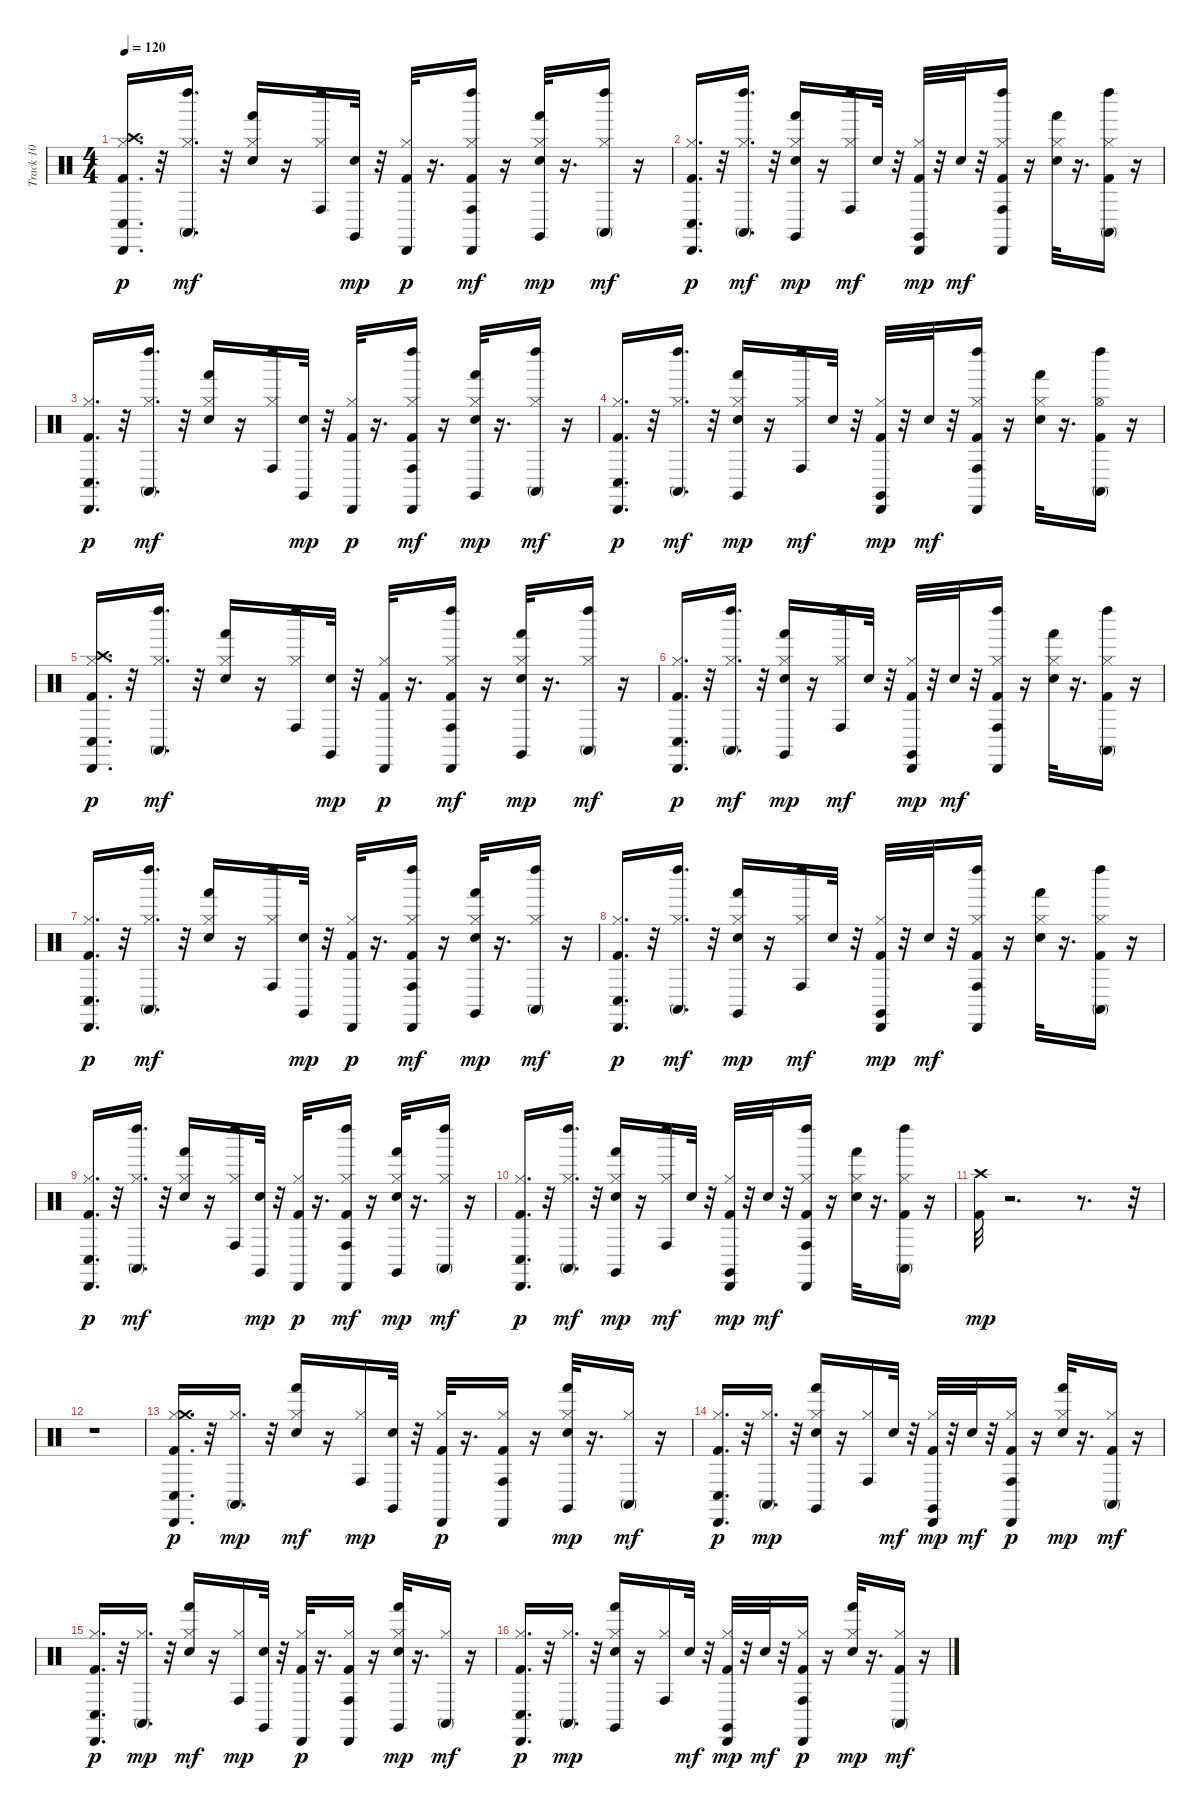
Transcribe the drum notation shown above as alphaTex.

\track ("Track 10" "Track 10") {instrument percussion}
\staff {score}
\articulation defaults
\ts (4 4)
\tempo 120
\clef neutral
\ks c
("Kick (hit) 2" "Hi-Hat (closed)" "Crash high (hit)" "Conga low (hit)" "Cabasa (hit)").16{d dy p} r.32 ("Hi-Hat (closed)" "Conga high (mute)" "Left Maraca (hit)").16{d dy mf} r.32 ("Electric Snare (hit)" "Hi-Hat (closed)" "Hand (hit)").16 r.16 ("Hi-Hat (closed)" "Conga high (hit)" "Left Maraca (hit)").16 ("Electric Snare (hit)" "Claves (hit)").32{dy mp} r.32 ("Kick (hit) 2" "Hi-Hat (closed)" "Cabasa (hit)").32{dy p} r.16{d} ("Kick (hit) 2" "Hi-Hat (closed)" "Conga high (hit)" "Cabasa (hit)" "Left Maraca (hit)").16{dy mf} r.16 ("Electric Snare (hit)" "Hi-Hat (closed)" "Hand (hit)" "Claves (hit)").32{dy mp} r.16{d} ("Hi-Hat (closed)" "Conga high (mute)" "Left Maraca (hit)").16{dy mf} r.16 |
("Kick (hit) 2" "Hi-Hat (closed)" "Conga low (hit)" "Cabasa (hit)").16{d dy p} r.32 ("Hi-Hat (closed)" "Conga high (mute)" "Left Maraca (hit)").16{d dy mf} r.32 ("Electric Snare (hit)" "Hi-Hat (closed)" "Hand (hit)" "Claves (hit)").16{dy mp} r.16 ("Hi-Hat (closed)" "Conga high (hit)" "Left Maraca (hit)").16{dy mf} "Electric Snare (hit)".32 r.32 ("Kick (hit) 2" "Hi-Hat (closed)" "Cabasa (hit)" "Claves (hit)").32{dy mp} r.32 "Electric Snare (hit)".32{dy mf} r.32 ("Kick (hit) 2" "Hi-Hat (closed)" "Conga high (hit)" "Cabasa (hit)" "Left Maraca (hit)").16 r.16 ("Electric Snare (hit)" "Hi-Hat (closed)" "Hand (hit)").32 r.16{d} ("Kick (hit) 2" "Hi-Hat (closed)" "Conga high (mute)" "Left Maraca (hit)").16 r.16 |
("Kick (hit) 2" "Hi-Hat (closed)" "Conga low (hit)" "Cabasa (hit)").16{d dy p} r.32 ("Hi-Hat (closed)" "Conga high (mute)" "Left Maraca (hit)").16{d dy mf} r.32 ("Electric Snare (hit)" "Hi-Hat (closed)" "Hand (hit)").16 r.16 ("Hi-Hat (closed)" "Conga high (hit)" "Left Maraca (hit)").16 ("Electric Snare (hit)" "Claves (hit)").32{dy mp} r.32 ("Kick (hit) 2" "Hi-Hat (closed)" "Cabasa (hit)").32{dy p} r.16{d} ("Kick (hit) 2" "Hi-Hat (closed)" "Conga high (hit)" "Cabasa (hit)" "Left Maraca (hit)").16{dy mf} r.16 ("Electric Snare (hit)" "Hi-Hat (closed)" "Hand (hit)" "Claves (hit)").32{dy mp} r.16{d} ("Hi-Hat (closed)" "Conga high (mute)" "Left Maraca (hit)").16{dy mf} r.16 |
("Kick (hit) 2" "Hi-Hat (closed)" "Conga low (hit)" "Cabasa (hit)").16{d dy p} r.32 ("Hi-Hat (closed)" "Conga high (mute)" "Left Maraca (hit)").16{d dy mf} r.32 ("Electric Snare (hit)" "Hi-Hat (closed)" "Hand (hit)" "Claves (hit)").16{dy mp} r.16 ("Hi-Hat (closed)" "Conga high (hit)" "Left Maraca (hit)").16{dy mf} "Electric Snare (hit)".32 r.32 ("Kick (hit) 2" "Hi-Hat (closed)" "Cabasa (hit)" "Claves (hit)").32{dy mp} r.32 "Electric Snare (hit)".32{dy mf} r.32 ("Kick (hit) 2" "Hi-Hat (closed)" "Conga high (hit)" "Cabasa (hit)" "Left Maraca (hit)").16 r.16 ("Electric Snare (hit)" "Hi-Hat (closed)" "Hand (hit)").32 r.16{d} ("Kick (hit) 2" "Hi-Hat (open)" "Conga high (mute)" "Left Maraca (hit)").16 r.16 |
("Kick (hit) 2" "Hi-Hat (closed)" "Crash high (hit)" "Conga low (hit)" "Cabasa (hit)").16{d dy p} r.32 ("Hi-Hat (closed)" "Conga high (mute)" "Left Maraca (hit)").16{d dy mf} r.32 ("Electric Snare (hit)" "Hi-Hat (closed)" "Hand (hit)").16 r.16 ("Hi-Hat (closed)" "Conga high (hit)" "Left Maraca (hit)").16 ("Electric Snare (hit)" "Claves (hit)").32{dy mp} r.32 ("Kick (hit) 2" "Hi-Hat (closed)" "Cabasa (hit)").32{dy p} r.16{d} ("Kick (hit) 2" "Hi-Hat (closed)" "Conga high (hit)" "Cabasa (hit)" "Left Maraca (hit)").16{dy mf} r.16 ("Electric Snare (hit)" "Hi-Hat (closed)" "Hand (hit)" "Claves (hit)").32{dy mp} r.16{d} ("Hi-Hat (closed)" "Conga high (mute)" "Left Maraca (hit)").16{dy mf} r.16 |
("Kick (hit) 2" "Hi-Hat (closed)" "Conga low (hit)" "Cabasa (hit)").16{d dy p} r.32 ("Hi-Hat (closed)" "Conga high (mute)" "Left Maraca (hit)").16{d dy mf} r.32 ("Electric Snare (hit)" "Hi-Hat (closed)" "Hand (hit)" "Claves (hit)").16{dy mp} r.16 ("Hi-Hat (closed)" "Conga high (hit)" "Left Maraca (hit)").16{dy mf} "Electric Snare (hit)".32 r.32 ("Kick (hit) 2" "Hi-Hat (closed)" "Cabasa (hit)" "Claves (hit)").32{dy mp} r.32 "Electric Snare (hit)".32{dy mf} r.32 ("Kick (hit) 2" "Hi-Hat (closed)" "Conga high (hit)" "Cabasa (hit)" "Left Maraca (hit)").16 r.16 ("Electric Snare (hit)" "Hi-Hat (closed)" "Hand (hit)").32 r.16{d} ("Kick (hit) 2" "Hi-Hat (closed)" "Conga high (mute)" "Left Maraca (hit)").16 r.16 |
("Kick (hit) 2" "Hi-Hat (closed)" "Conga low (hit)" "Cabasa (hit)").16{d dy p} r.32 ("Hi-Hat (closed)" "Conga high (mute)" "Left Maraca (hit)").16{d dy mf} r.32 ("Electric Snare (hit)" "Hi-Hat (closed)" "Hand (hit)").16 r.16 ("Hi-Hat (closed)" "Conga high (hit)" "Left Maraca (hit)").16 ("Electric Snare (hit)" "Claves (hit)").32{dy mp} r.32 ("Kick (hit) 2" "Hi-Hat (closed)" "Cabasa (hit)").32{dy p} r.16{d} ("Kick (hit) 2" "Hi-Hat (closed)" "Conga high (hit)" "Cabasa (hit)" "Left Maraca (hit)").16{dy mf} r.16 ("Electric Snare (hit)" "Hi-Hat (closed)" "Hand (hit)" "Claves (hit)").32{dy mp} r.16{d} ("Hi-Hat (closed)" "Conga high (mute)" "Left Maraca (hit)").16{dy mf} r.16 |
("Kick (hit) 2" "Hi-Hat (closed)" "Conga low (hit)" "Cabasa (hit)").16{d dy p} r.32 ("Hi-Hat (closed)" "Conga high (mute)" "Left Maraca (hit)").16{d dy mf} r.32 ("Electric Snare (hit)" "Hi-Hat (closed)" "Hand (hit)" "Claves (hit)").16{dy mp} r.16 ("Hi-Hat (closed)" "Conga high (hit)" "Left Maraca (hit)").16{dy mf} "Electric Snare (hit)".32 r.32 ("Kick (hit) 2" "Hi-Hat (closed)" "Cabasa (hit)" "Claves (hit)").32{dy mp} r.32 "Electric Snare (hit)".32{dy mf} r.32 ("Kick (hit) 2" "Hi-Hat (closed)" "Conga high (hit)" "Cabasa (hit)" "Left Maraca (hit)").16 r.16 ("Electric Snare (hit)" "Hi-Hat (closed)" "Hand (hit)").32 r.16{d} ("Kick (hit) 2" "Hi-Hat (closed)" "Conga high (mute)" "Left Maraca (hit)").16 r.16 |
("Kick (hit) 2" "Hi-Hat (closed)" "Conga low (hit)" "Cabasa (hit)").16{d dy p} r.32 ("Hi-Hat (closed)" "Conga high (mute)" "Left Maraca (hit)").16{d dy mf} r.32 ("Electric Snare (hit)" "Hi-Hat (closed)" "Hand (hit)").16 r.16 ("Hi-Hat (closed)" "Conga high (hit)" "Left Maraca (hit)").16 ("Electric Snare (hit)" "Claves (hit)").32{dy mp} r.32 ("Kick (hit) 2" "Hi-Hat (closed)" "Cabasa (hit)").32{dy p} r.16{d} ("Kick (hit) 2" "Hi-Hat (closed)" "Conga high (hit)" "Cabasa (hit)" "Left Maraca (hit)").16{dy mf} r.16 ("Electric Snare (hit)" "Hi-Hat (closed)" "Hand (hit)" "Claves (hit)").32{dy mp} r.16{d} ("Hi-Hat (closed)" "Conga high (mute)" "Left Maraca (hit)").16{dy mf} r.16 |
("Kick (hit) 2" "Hi-Hat (closed)" "Conga low (hit)" "Cabasa (hit)").16{d dy p} r.32 ("Hi-Hat (closed)" "Conga high (mute)" "Left Maraca (hit)").16{d dy mf} r.32 ("Electric Snare (hit)" "Hi-Hat (closed)" "Hand (hit)" "Claves (hit)").16{dy mp} r.16 ("Hi-Hat (closed)" "Conga high (hit)" "Left Maraca (hit)").16{dy mf} "Electric Snare (hit)".32 r.32 ("Kick (hit) 2" "Hi-Hat (closed)" "Cabasa (hit)" "Claves (hit)").32{dy mp} r.32 "Electric Snare (hit)".32{dy mf} r.32 ("Kick (hit) 2" "Hi-Hat (closed)" "Conga high (hit)" "Cabasa (hit)" "Left Maraca (hit)").16 r.16 ("Electric Snare (hit)" "Hi-Hat (closed)" "Hand (hit)").32 r.16{d} ("Kick (hit) 2" "Hi-Hat (closed)" "Conga high (mute)" "Left Maraca (hit)").16 r.16 |
("Kick (hit) 2" "Crash high (hit)").32{dy mp} r.2{d} r.8{d} r.32 |
r.1 |
("Kick (hit) 2" "Hi-Hat (closed)" "Crash medium (hit)" "Conga low (hit)" "Cabasa (hit)").16{d dy p} r.32 ("Hi-Hat (closed)" "Conga high (mute)").16{d dy mp} r.32 ("Electric Snare (hit)" "Hi-Hat (closed)" "Hand (hit)").16{dy mf} r.16 ("Hi-Hat (closed)" "Conga high (hit)").16{dy mp} ("Electric Snare (hit)" "Claves (hit)").32 r.32 ("Kick (hit) 2" "Hi-Hat (closed)" "Cabasa (hit)").32{dy p} r.16{d} ("Kick (hit) 2" "Hi-Hat (closed)" "Conga high (hit)" "Cabasa (hit)").16 r.16 ("Electric Snare (hit)" "Hi-Hat (closed)" "Hand (hit)" "Claves (hit)").32{dy mp} r.16{d} ("Hi-Hat (closed)" "Conga high (mute)").16{dy mf} r.16 |
("Kick (hit) 2" "Hi-Hat (closed)" "Conga low (hit)" "Cabasa (hit)").16{d dy p} r.32 ("Hi-Hat (closed)" "Conga high (mute)").16{d dy mp} r.32 ("Electric Snare (hit)" "Hi-Hat (closed)" "Hand (hit)" "Claves (hit)").16 r.16 ("Hi-Hat (closed)" "Conga high (hit)").16 "Electric Snare (hit)".32{dy mf} r.32 ("Kick (hit) 2" "Hi-Hat (closed)" "Cabasa (hit)" "Claves (hit)").32{dy mp} r.32 "Electric Snare (hit)".32{dy mf} r.32 ("Kick (hit) 2" "Hi-Hat (closed)" "Conga high (hit)" "Cabasa (hit)").16{dy p} r.16 ("Electric Snare (hit)" "Hi-Hat (closed)" "Hand (hit)").32{dy mp} r.16{d} ("Kick (hit) 2" "Hi-Hat (closed)" "Conga high (mute)").16{dy mf} r.16 |
("Kick (hit) 2" "Hi-Hat (closed)" "Conga low (hit)" "Cabasa (hit)").16{d dy p} r.32 ("Hi-Hat (closed)" "Conga high (mute)").16{d dy mp} r.32 ("Electric Snare (hit)" "Hi-Hat (closed)" "Hand (hit)").16{dy mf} r.16 ("Hi-Hat (closed)" "Conga high (hit)").16{dy mp} ("Electric Snare (hit)" "Claves (hit)").32 r.32 ("Kick (hit) 2" "Hi-Hat (closed)" "Cabasa (hit)").32{dy p} r.16{d} ("Kick (hit) 2" "Hi-Hat (closed)" "Conga high (hit)" "Cabasa (hit)").16 r.16 ("Electric Snare (hit)" "Hi-Hat (closed)" "Hand (hit)" "Claves (hit)").32{dy mp} r.16{d} ("Hi-Hat (closed)" "Conga high (mute)").16{dy mf} r.16 |
("Kick (hit) 2" "Hi-Hat (closed)" "Conga low (hit)" "Cabasa (hit)").16{d dy p} r.32 ("Hi-Hat (closed)" "Conga high (mute)").16{d dy mp} r.32 ("Electric Snare (hit)" "Hi-Hat (closed)" "Hand (hit)" "Claves (hit)").16 r.16 ("Hi-Hat (closed)" "Conga high (hit)").16 "Electric Snare (hit)".32{dy mf} r.32 ("Kick (hit) 2" "Hi-Hat (closed)" "Cabasa (hit)" "Claves (hit)").32{dy mp} r.32 "Electric Snare (hit)".32{dy mf} r.32 ("Kick (hit) 2" "Hi-Hat (closed)" "Conga high (hit)" "Cabasa (hit)").16{dy p} r.16 ("Electric Snare (hit)" "Hi-Hat (closed)" "Hand (hit)").32{dy mp} r.16{d} ("Kick (hit) 2" "Hi-Hat (closed)" "Conga high (mute)").16{dy mf} r.16
